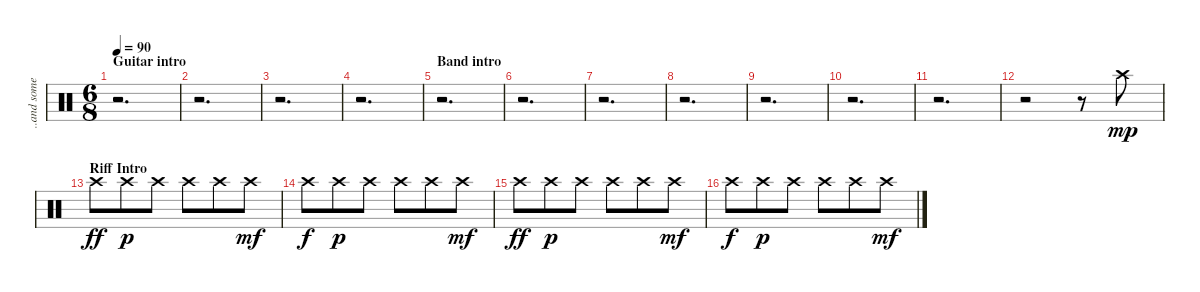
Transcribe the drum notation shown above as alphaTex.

\track ("..and some cymbals" "..and some") {instrument percussion}
\staff {score}
\articulation defaults
\ts (6 8)
\section ("" "Guitar intro")
\tempo 90
\clef neutral
\ks c
r.2{d dy mp} |
r.2{d} |
r.2{d} |
r.2{d} |
\section ("" "Band intro")
r.2{d} |
r.2{d} |
r.2{d} |
r.2{d} |
r.2{d} |
r.2{d} |
r.2{d} |
r.2 r.8 "Crash high (hit)".8 |
\section ("" "Riff Intro")
"Crash high (hit)".8{dy ff} "Crash high (hit)".8{dy p} "Crash high (hit)".8 "Crash high (hit)".8 "Crash high (hit)".8 "Crash high (hit)".8{dy mf} |
"Crash high (hit)".8{dy f} "Crash high (hit)".8{dy p} "Crash high (hit)".8 "Crash high (hit)".8 "Crash high (hit)".8 "Crash high (hit)".8{dy mf} |
"Crash high (hit)".8{dy ff} "Crash high (hit)".8{dy p} "Crash high (hit)".8 "Crash high (hit)".8 "Crash high (hit)".8 "Crash high (hit)".8{dy mf} |
"Crash high (hit)".8{dy f} "Crash high (hit)".8{dy p} "Crash high (hit)".8 "Crash high (hit)".8 "Crash high (hit)".8 "Crash high (hit)".8{dy mf}
